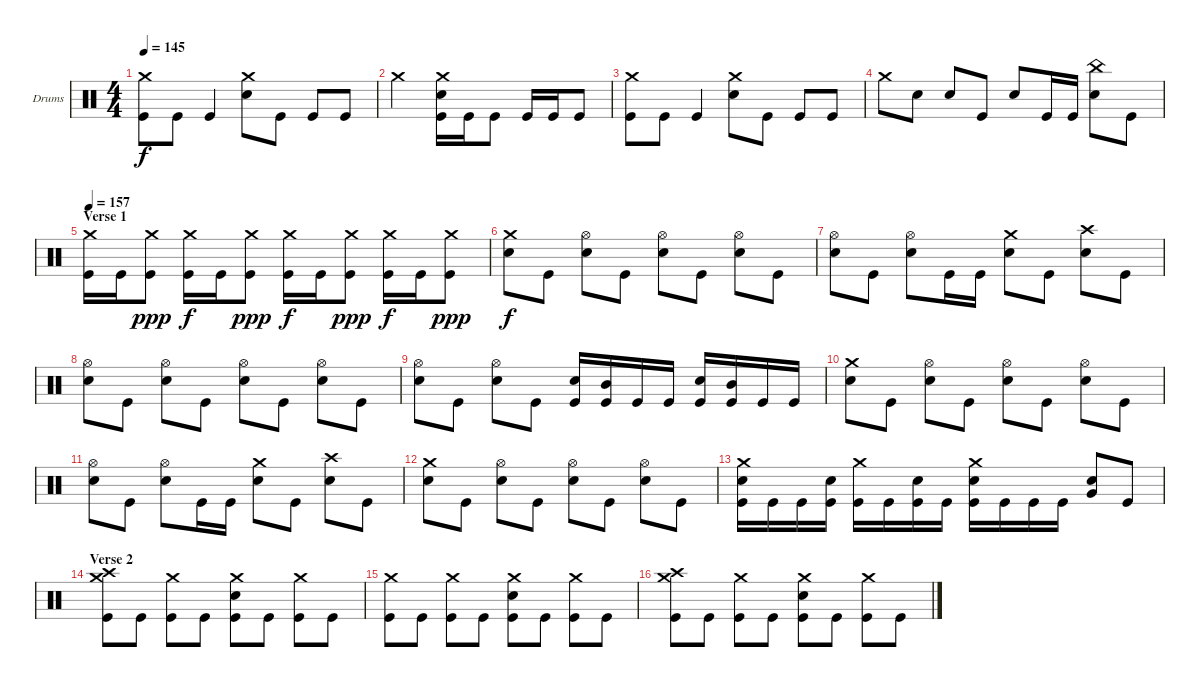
\bracketExtendMode groupsimilarinstruments
\firstSystemTrackNameOrientation horizontal
\otherSystemsTrackNameOrientation horizontal
\track ("Drumkit" "Drums") {instrument percussion}
\staff {score}
\articulation defaults
\ts (4 4)
\tempo 145
\clef neutral
\ks c
("Crash medium (hit)" "Kick (hit)").8{dy f} "Kick (hit)".8 "Kick (hit)".4 ("Crash medium (hit)" "Snare (hit) 2").8 "Kick (hit)".8 "Kick (hit)".8 "Kick (hit)".8 |
"Crash medium (hit)".2 ("Crash medium (hit)" "Snare (hit) 2" "Kick (hit)").16 "Kick (hit)".16 "Kick (hit)".8 "Kick (hit)".16 "Kick (hit)".16 "Kick (hit)".8 |
("Crash medium (hit)" "Kick (hit)").8 "Kick (hit)".8 "Kick (hit)".4 ("Crash medium (hit)" "Snare (hit) 2").8 "Kick (hit)".8 "Kick (hit)".8 "Kick (hit)".8 |
"Crash medium (hit)".8 "Snare (hit) 2".8 "Snare (hit) 2".8 "Kick (hit)".8 "Snare (hit) 2".8 "Kick (hit)".16 "Kick (hit)".16 ("China (hit)" "Snare (hit) 2").8 "Kick (hit)".8 |
\section ("" "Verse 1")
\tempo 157
("Crash medium (hit)" "Kick (hit)").16 "Kick (hit)".16 ("Crash medium (hit)" "Kick (hit)").8{dy ppp} ("Crash medium (hit)" "Kick (hit)").16{dy f} "Kick (hit)".16 ("Crash medium (hit)" "Kick (hit)").8{dy ppp} ("Crash medium (hit)" "Kick (hit)").16{dy f} "Kick (hit)".16 ("Crash medium (hit)" "Kick (hit)").8{dy ppp} ("Crash medium (hit)" "Kick (hit)").16{dy f} "Kick (hit)".16 ("Crash medium (hit)" "Kick (hit)").8{dy ppp} |
("Crash medium (hit)" "Snare (hit) 2").8{dy f} "Kick (hit)".8 ("Hi-Hat (open)" "Snare (hit) 2").8 "Kick (hit)".8 ("Hi-Hat (open)" "Snare (hit) 2").8 "Kick (hit)".8 ("Hi-Hat (open)" "Snare (hit) 2").8 "Kick (hit)".8 |
("Hi-Hat (open)" "Snare (hit) 2").8 "Kick (hit)".8 ("Hi-Hat (open)" "Snare (hit) 2").8 "Kick (hit)".16 "Kick (hit)".16 ("Crash medium (hit)" "Snare (hit) 2").8 "Kick (hit)".8 ("Crash high (hit)" "Snare (hit) 2").8 "Kick (hit)".8 |
("Hi-Hat (open)" "Snare (hit) 2").8 "Kick (hit)".8 ("Hi-Hat (open)" "Snare (hit) 2").8 "Kick (hit)".8 ("Hi-Hat (open)" "Snare (hit) 2").8 "Kick (hit)".8 ("Hi-Hat (open)" "Snare (hit) 2").8 "Kick (hit)".8 |
("Hi-Hat (open)" "Snare (hit) 2").8 "Kick (hit)".8 ("Hi-Hat (open)" "Snare (hit) 2").8 "Kick (hit)".8 ("Snare (hit) 2" "Kick (hit)").16 ("Mid Tom (hit)" "Kick (hit)").16 "Kick (hit)".16 "Kick (hit)".16 ("Snare (hit) 2" "Kick (hit)").16 ("Mid Tom (hit)" "Kick (hit)").16 "Kick (hit)".16 "Kick (hit)".16 |
("Crash medium (hit)" "Snare (hit) 2").8 "Kick (hit)".8 ("Hi-Hat (open)" "Snare (hit) 2").8 "Kick (hit)".8 ("Hi-Hat (open)" "Snare (hit) 2").8 "Kick (hit)".8 ("Hi-Hat (open)" "Snare (hit) 2").8 "Kick (hit)".8 |
("Hi-Hat (open)" "Snare (hit) 2").8 "Kick (hit)".8 ("Hi-Hat (open)" "Snare (hit) 2").8 "Kick (hit)".16 "Kick (hit)".16 ("Crash medium (hit)" "Snare (hit) 2").8 "Kick (hit)".8 ("Crash high (hit)" "Snare (hit) 2").8 "Kick (hit)".8 |
("Crash medium (hit)" "Snare (hit) 2").8 "Kick (hit)".8 ("Hi-Hat (open)" "Snare (hit) 2").8 "Kick (hit)".8 ("Hi-Hat (open)" "Snare (hit) 2").8 "Kick (hit)".8 ("Hi-Hat (open)" "Snare (hit) 2").8 "Kick (hit)".8 |
("Crash medium (hit)" "Snare (hit) 2" "Kick (hit)").16 "Kick (hit)".16 "Kick (hit)".16 ("Snare (hit) 2" "Kick (hit)").16 ("Crash medium (hit)" "Kick (hit)").16 "Kick (hit)".16 ("Snare (hit) 2" "Kick (hit)").16 "Kick (hit)".16 ("Crash medium (hit)" "Snare (hit) 2" "Kick (hit)").16 "Kick (hit)".16 "Kick (hit)".16 "Kick (hit)".16 ("Very Low Tom (hit)" "Snare (hit) 2").8 "Kick (hit)".8 |
\section ("" "Verse 2")
("Crash medium (hit)" "Crash high (hit)" "Kick (hit)").8 "Kick (hit)".8 ("Crash medium (hit)" "Kick (hit)").8 "Kick (hit)".8 ("Crash medium (hit)" "Snare (hit) 2" "Kick (hit)").8 "Kick (hit)".8 ("Crash medium (hit)" "Kick (hit)").8 "Kick (hit)".8 |
("Crash medium (hit)" "Kick (hit)").8 "Kick (hit)".8 ("Crash medium (hit)" "Kick (hit)").8 "Kick (hit)".8 ("Crash medium (hit)" "Snare (hit) 2" "Kick (hit)").8 "Kick (hit)".8 ("Crash medium (hit)" "Kick (hit)").8 "Kick (hit)".8 |
("Crash medium (hit)" "Crash high (hit)" "Kick (hit)").8 "Kick (hit)".8 ("Crash medium (hit)" "Kick (hit)").8 "Kick (hit)".8 ("Crash medium (hit)" "Snare (hit) 2" "Kick (hit)").8 "Kick (hit)".8 ("Crash medium (hit)" "Kick (hit)").8 "Kick (hit)".8
